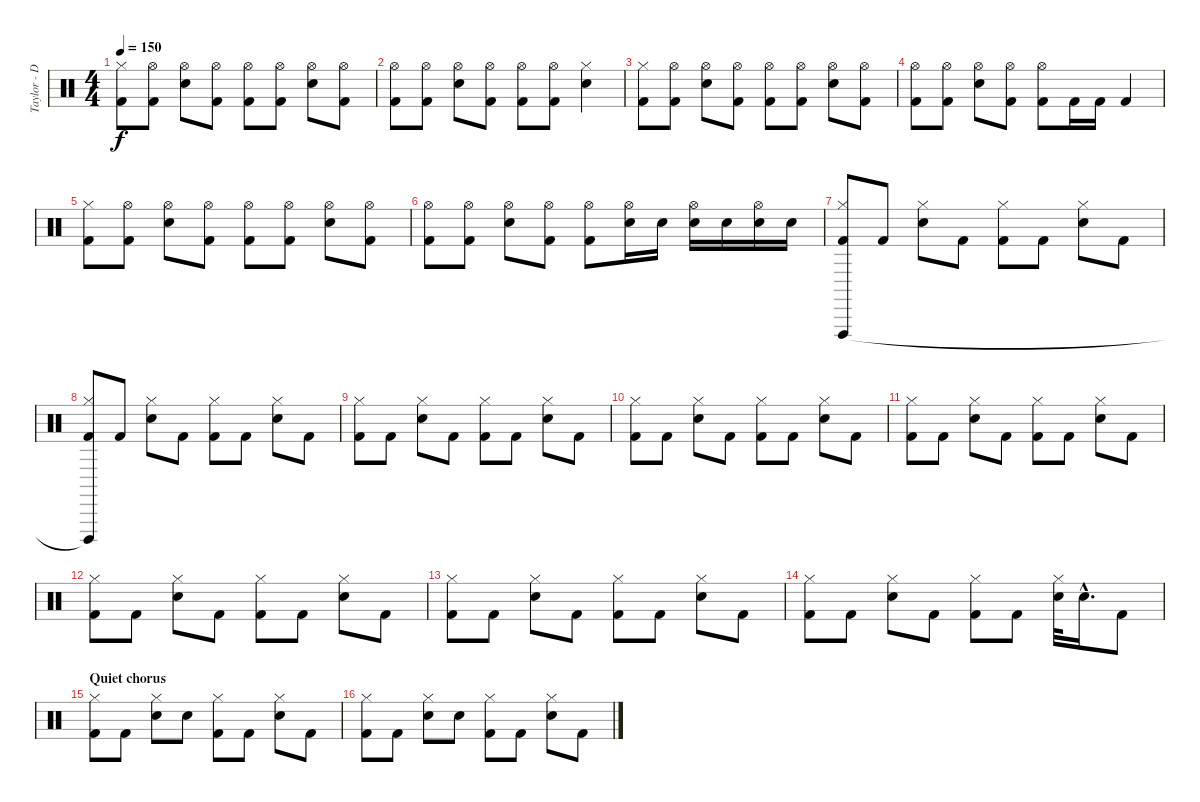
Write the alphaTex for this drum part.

\track ("Taylor - Drums" "Taylor - D") {instrument percussion}
\staff {score}
\articulation defaults
\ts (4 4)
\tempo 150
\clef neutral
\ks c
("Kick (hit) 2" "Hi-Hat (closed)").8{dy f} ("Kick (hit) 2" "Hi-Hat (open)").8 ("Snare (hit) 2" "Hi-Hat (open)").8 ("Kick (hit) 2" "Hi-Hat (open)").8 ("Kick (hit) 2" "Hi-Hat (open)").8 ("Kick (hit) 2" "Hi-Hat (open)").8 ("Snare (hit) 2" "Hi-Hat (open)").8 ("Kick (hit) 2" "Hi-Hat (open)").8 |
("Kick (hit) 2" "Hi-Hat (open)").8 ("Kick (hit) 2" "Hi-Hat (open)").8 ("Snare (hit) 2" "Hi-Hat (open)").8 ("Kick (hit) 2" "Hi-Hat (open)").8 ("Kick (hit) 2" "Hi-Hat (open)").8 ("Kick (hit) 2" "Hi-Hat (open)").8 ("Snare (hit) 2" "Hi-Hat (closed)").4 |
("Kick (hit) 2" "Hi-Hat (closed)").8 ("Kick (hit) 2" "Hi-Hat (open)").8 ("Snare (hit) 2" "Hi-Hat (open)").8 ("Kick (hit) 2" "Hi-Hat (open)").8 ("Kick (hit) 2" "Hi-Hat (open)").8 ("Kick (hit) 2" "Hi-Hat (open)").8 ("Snare (hit) 2" "Hi-Hat (open)").8 ("Kick (hit) 2" "Hi-Hat (open)").8 |
("Kick (hit) 2" "Hi-Hat (open)").8 ("Kick (hit) 2" "Hi-Hat (open)").8 ("Snare (hit) 2" "Hi-Hat (open)").8 ("Kick (hit) 2" "Hi-Hat (open)").8 ("Kick (hit) 2" "Hi-Hat (open)").8 "Kick (hit) 2".16 "Kick (hit) 2".16 "Kick (hit) 2".4 |
("Kick (hit) 2" "Hi-Hat (closed)").8 ("Kick (hit) 2" "Hi-Hat (open)").8 ("Snare (hit) 2" "Hi-Hat (open)").8 ("Kick (hit) 2" "Hi-Hat (open)").8 ("Kick (hit) 2" "Hi-Hat (open)").8 ("Kick (hit) 2" "Hi-Hat (open)").8 ("Snare (hit) 2" "Hi-Hat (open)").8 ("Kick (hit) 2" "Hi-Hat (open)").8 |
("Kick (hit) 2" "Hi-Hat (open)").8 ("Kick (hit) 2" "Hi-Hat (open)").8 ("Snare (hit) 2" "Hi-Hat (open)").8 ("Kick (hit) 2" "Hi-Hat (open)").8 ("Kick (hit) 2" "Hi-Hat (open)").8 ("Snare (hit) 2" "Hi-Hat (open)").16 "Snare (hit) 2".16 ("Snare (hit) 2" "Hi-Hat (open)").16 "Snare (hit) 2".16 ("Snare (hit) 2" "Hi-Hat (open)").16 "Snare (hit) 2".16 |
("Kick (hit) 2" "Hi-Hat (closed)" "Vibraslap (hit)").8 "Kick (hit) 2".8 ("Snare (hit) 2" "Hi-Hat (closed)").8 "Kick (hit) 2".8 ("Kick (hit) 2" "Hi-Hat (closed)").8 "Kick (hit) 2".8 ("Snare (hit) 2" "Hi-Hat (closed)").8 "Kick (hit) 2".8 |
("Kick (hit) 2" "Hi-Hat (closed)" "Cuica (open)"{t}).8 "Kick (hit) 2".8 ("Snare (hit) 2" "Hi-Hat (closed)").8 "Kick (hit) 2".8 ("Kick (hit) 2" "Hi-Hat (closed)").8 "Kick (hit) 2".8 ("Snare (hit) 2" "Hi-Hat (closed)").8 "Kick (hit) 2".8 |
("Kick (hit) 2" "Hi-Hat (closed)").8 "Kick (hit) 2".8 ("Snare (hit) 2" "Hi-Hat (closed)").8 "Kick (hit) 2".8 ("Kick (hit) 2" "Hi-Hat (closed)").8 "Kick (hit) 2".8 ("Snare (hit) 2" "Hi-Hat (closed)").8 "Kick (hit) 2".8 |
("Kick (hit) 2" "Hi-Hat (closed)").8 "Kick (hit) 2".8 ("Snare (hit) 2" "Hi-Hat (closed)").8 "Kick (hit) 2".8 ("Kick (hit) 2" "Hi-Hat (closed)").8 "Kick (hit) 2".8 ("Snare (hit) 2" "Hi-Hat (closed)").8 "Kick (hit) 2".8 |
("Kick (hit) 2" "Hi-Hat (closed)").8 "Kick (hit) 2".8 ("Snare (hit) 2" "Hi-Hat (closed)").8 "Kick (hit) 2".8 ("Kick (hit) 2" "Hi-Hat (closed)").8 "Kick (hit) 2".8 ("Snare (hit) 2" "Hi-Hat (closed)").8 "Kick (hit) 2".8 |
("Kick (hit) 2" "Hi-Hat (closed)").8 "Kick (hit) 2".8 ("Snare (hit) 2" "Hi-Hat (closed)").8 "Kick (hit) 2".8 ("Kick (hit) 2" "Hi-Hat (closed)").8 "Kick (hit) 2".8 ("Snare (hit) 2" "Hi-Hat (closed)").8 "Kick (hit) 2".8 |
("Kick (hit) 2" "Hi-Hat (closed)").8 "Kick (hit) 2".8 ("Snare (hit) 2" "Hi-Hat (closed)").8 "Kick (hit) 2".8 ("Kick (hit) 2" "Hi-Hat (closed)").8 "Kick (hit) 2".8 ("Snare (hit) 2" "Hi-Hat (closed)").8 "Kick (hit) 2".8 |
("Kick (hit) 2" "Hi-Hat (closed)").8 "Kick (hit) 2".8 ("Snare (hit) 2" "Hi-Hat (closed)").8 "Kick (hit) 2".8 ("Kick (hit) 2" "Hi-Hat (closed)").8 "Kick (hit) 2".8 ("Snare (hit) 2" "Hi-Hat (closed)").32 "Snare (hit) 2"{hac}.16{d} "Kick (hit) 2".8 |
\section ("" "Quiet chorus")
("Kick (hit) 2" "Hi-Hat (closed)").8 "Kick (hit) 2".8 ("Snare (hit) 2" "Hi-Hat (closed)").8 "Snare (hit) 2".8 ("Kick (hit) 2" "Hi-Hat (closed)").8 "Kick (hit) 2".8 ("Snare (hit) 2" "Hi-Hat (closed)").8 "Kick (hit) 2".8 |
("Kick (hit) 2" "Hi-Hat (closed)").8 "Kick (hit) 2".8 ("Snare (hit) 2" "Hi-Hat (closed)").8 "Snare (hit) 2".8 ("Kick (hit) 2" "Hi-Hat (closed)").8 "Kick (hit) 2".8 ("Snare (hit) 2" "Hi-Hat (closed)").8 "Kick (hit) 2".8
